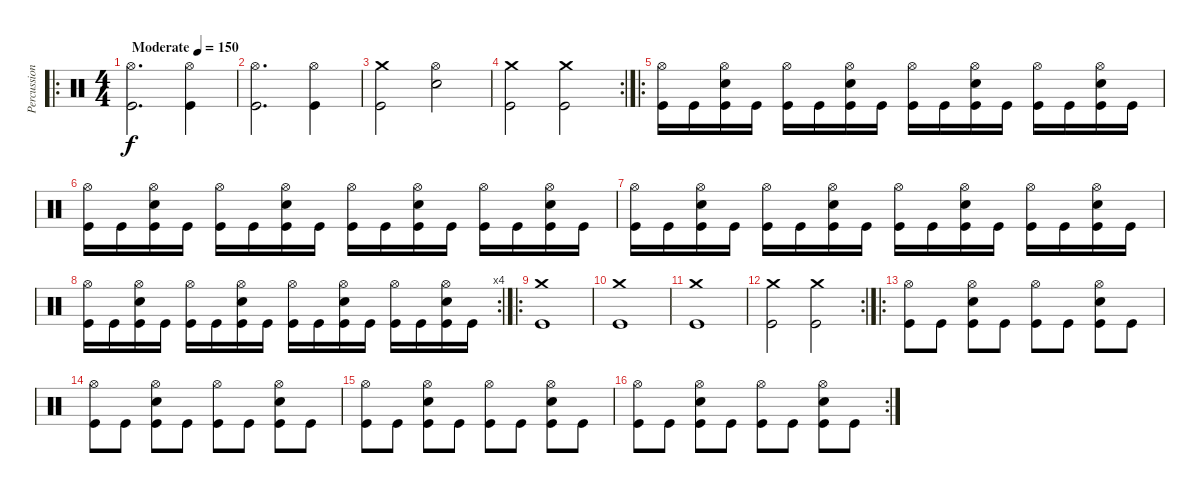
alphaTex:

\track ("Percussion" "Percussion") {instrument percussion}
\staff {score}
\articulation defaults
\ro
\ts (4 4)
\tempo (150 "Moderate")
\clef neutral
\ks c
("Hi-Hat (open)" "Kick (hit)").2{d dy f} ("Hi-Hat (open)" "Kick (hit)").4 |
("Hi-Hat (open)" "Kick (hit)").2{d} ("Hi-Hat (open)" "Kick (hit)").4 |
("Crash medium (hit)" "Kick (hit)").2 ("Hi-Hat (open)" "Snare (hit) 2").2 |
\rc 2
("Crash medium (hit)" "Kick (hit)").2 ("Crash medium (hit)" "Kick (hit)").2 |
\ro
("Hi-Hat (open)" "Kick (hit)").16 "Kick (hit)".16 ("Hi-Hat (open)" "Snare (hit) 2" "Kick (hit)").16 "Kick (hit)".16 ("Hi-Hat (open)" "Kick (hit)").16 "Kick (hit)".16 ("Hi-Hat (open)" "Snare (hit) 2" "Kick (hit)").16 "Kick (hit)".16 ("Hi-Hat (open)" "Kick (hit)").16 "Kick (hit)".16 ("Hi-Hat (open)" "Snare (hit) 2" "Kick (hit)").16 "Kick (hit)".16 ("Hi-Hat (open)" "Kick (hit)").16 "Kick (hit)".16 ("Hi-Hat (open)" "Snare (hit) 2" "Kick (hit)").16 "Kick (hit)".16 |
("Hi-Hat (open)" "Kick (hit)").16 "Kick (hit)".16 ("Hi-Hat (open)" "Snare (hit) 2" "Kick (hit)").16 "Kick (hit)".16 ("Hi-Hat (open)" "Kick (hit)").16 "Kick (hit)".16 ("Hi-Hat (open)" "Snare (hit) 2" "Kick (hit)").16 "Kick (hit)".16 ("Hi-Hat (open)" "Kick (hit)").16 "Kick (hit)".16 ("Hi-Hat (open)" "Snare (hit) 2" "Kick (hit)").16 "Kick (hit)".16 ("Hi-Hat (open)" "Kick (hit)").16 "Kick (hit)".16 ("Hi-Hat (open)" "Snare (hit) 2" "Kick (hit)").16 "Kick (hit)".16 |
("Hi-Hat (open)" "Kick (hit)").16 "Kick (hit)".16 ("Hi-Hat (open)" "Snare (hit) 2" "Kick (hit)").16 "Kick (hit)".16 ("Hi-Hat (open)" "Kick (hit)").16 "Kick (hit)".16 ("Hi-Hat (open)" "Snare (hit) 2" "Kick (hit)").16 "Kick (hit)".16 ("Hi-Hat (open)" "Kick (hit)").16 "Kick (hit)".16 ("Hi-Hat (open)" "Snare (hit) 2" "Kick (hit)").16 "Kick (hit)".16 ("Hi-Hat (open)" "Kick (hit)").16 "Kick (hit)".16 ("Hi-Hat (open)" "Snare (hit) 2" "Kick (hit)").16 "Kick (hit)".16 |
\rc 4
("Hi-Hat (open)" "Kick (hit)").16 "Kick (hit)".16 ("Hi-Hat (open)" "Snare (hit) 2" "Kick (hit)").16 "Kick (hit)".16 ("Hi-Hat (open)" "Kick (hit)").16 "Kick (hit)".16 ("Hi-Hat (open)" "Snare (hit) 2" "Kick (hit)").16 "Kick (hit)".16 ("Hi-Hat (open)" "Kick (hit)").16 "Kick (hit)".16 ("Hi-Hat (open)" "Snare (hit) 2" "Kick (hit)").16 "Kick (hit)".16 ("Hi-Hat (open)" "Kick (hit)").16 "Kick (hit)".16 ("Hi-Hat (open)" "Snare (hit) 2" "Kick (hit)").16 "Kick (hit)".16 |
\ro
("Crash medium (hit)" "Kick (hit)").1 |
("Crash medium (hit)" "Kick (hit)").1 |
("Crash medium (hit)" "Kick (hit)").1 |
\rc 2
("Crash medium (hit)" "Kick (hit)").2 ("Crash medium (hit)" "Kick (hit)").2 |
\ro
("Hi-Hat (open)" "Kick (hit)").8 "Kick (hit)".8 ("Hi-Hat (open)" "Snare (hit) 2" "Kick (hit)").8 "Kick (hit)".8 ("Hi-Hat (open)" "Kick (hit)").8 "Kick (hit)".8 ("Hi-Hat (open)" "Snare (hit) 2" "Kick (hit)").8 "Kick (hit)".8 |
("Hi-Hat (open)" "Kick (hit)").8 "Kick (hit)".8 ("Hi-Hat (open)" "Snare (hit) 2" "Kick (hit)").8 "Kick (hit)".8 ("Hi-Hat (open)" "Kick (hit)").8 "Kick (hit)".8 ("Hi-Hat (open)" "Snare (hit) 2" "Kick (hit)").8 "Kick (hit)".8 |
("Hi-Hat (open)" "Kick (hit)").8 "Kick (hit)".8 ("Hi-Hat (open)" "Snare (hit) 2" "Kick (hit)").8 "Kick (hit)".8 ("Hi-Hat (open)" "Kick (hit)").8 "Kick (hit)".8 ("Hi-Hat (open)" "Snare (hit) 2" "Kick (hit)").8 "Kick (hit)".8 |
\rc 2
("Hi-Hat (open)" "Kick (hit)").8 "Kick (hit)".8 ("Hi-Hat (open)" "Snare (hit) 2" "Kick (hit)").8 "Kick (hit)".8 ("Hi-Hat (open)" "Kick (hit)").8 "Kick (hit)".8 ("Hi-Hat (open)" "Snare (hit) 2" "Kick (hit)").8 "Kick (hit)".8
